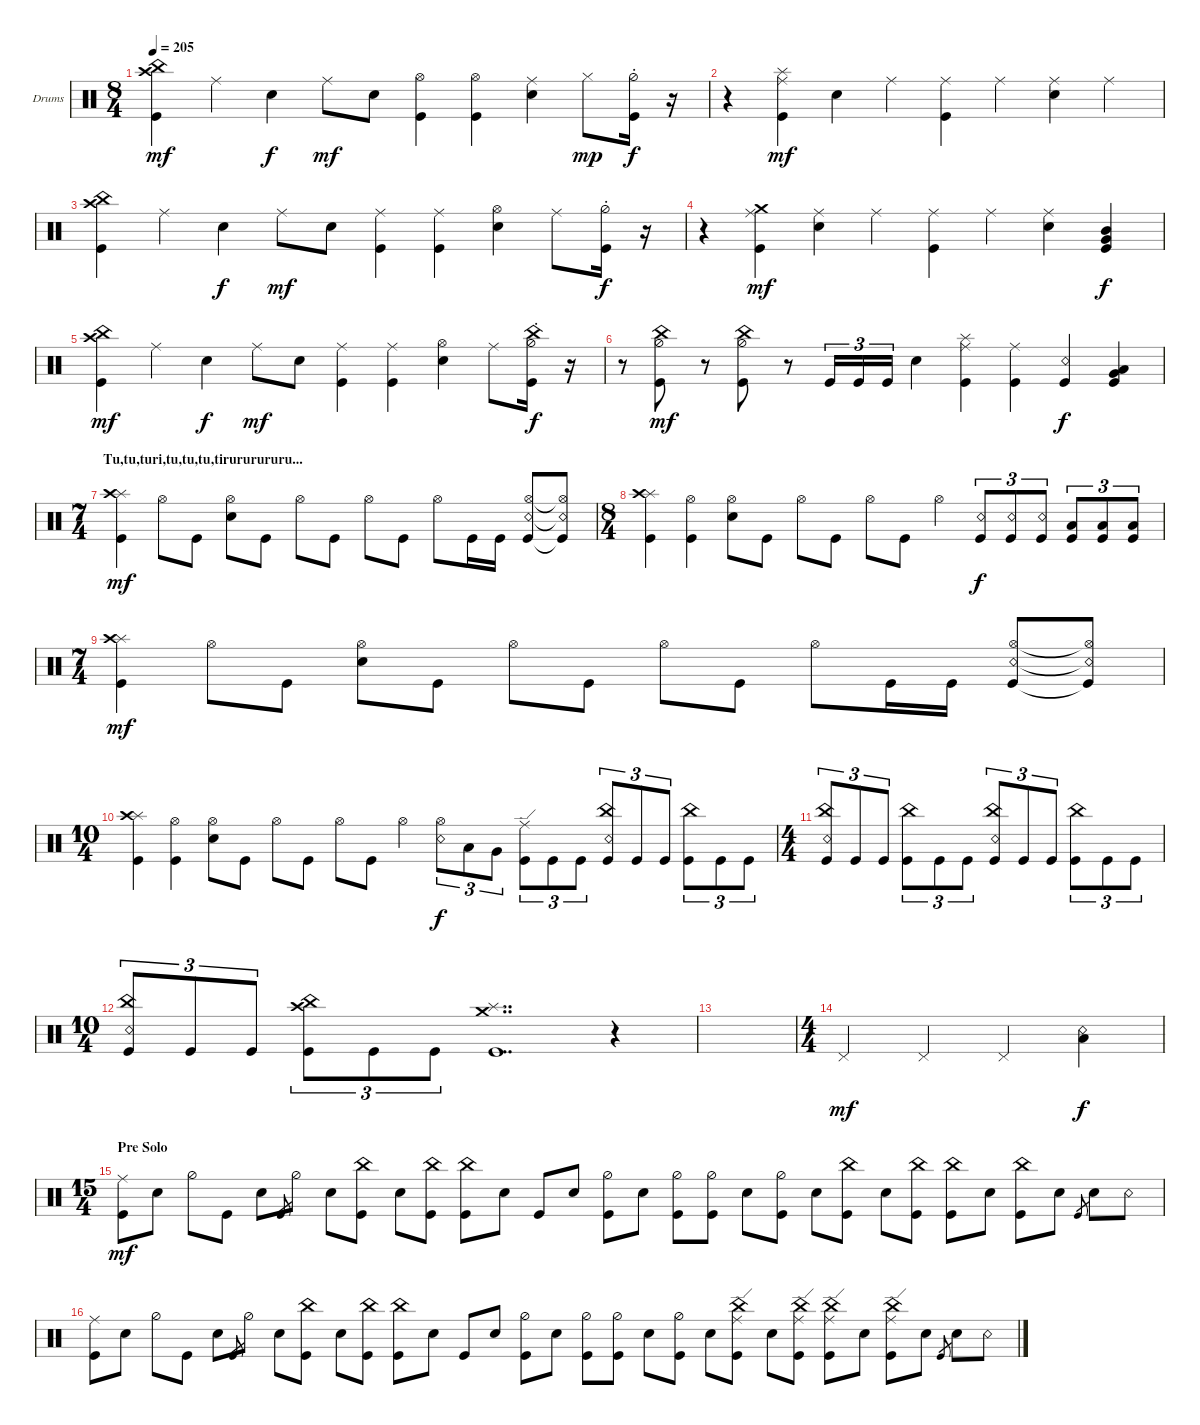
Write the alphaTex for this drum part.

\defaultSystemsLayout 4
\bracketExtendMode groupsimilarinstruments
\firstSystemTrackNameOrientation horizontal
\otherSystemsTrackNameOrientation horizontal
\track ("GordiBuena" "Drums") {instrument percussion}
\staff {score}
\articulation defaults
\ts (8 4)
\tempo 205
\clef neutral
\ks c
("Kick (hit)" "Crash high (hit)" "China (hit)").4{dy mf} "Ride (middle)".4 "Snare (hit) 2".4{dy f} "Ride (middle)".8{dy mf} "Snare (hit) 2".8 ("Kick (hit)" "Hi-Hat (open)").4 ("Kick (hit)" "Hi-Hat (open)").4 ("Snare (hit) 2" "Ride (middle)").4 "Hi-Hat (closed)".8{dy mp} ("Hi-Hat (half)"{st} "Kick (hit)"{st}).16{dy f} r.16 |
r.4 ("Kick (hit)" "Ride (middle)" "Splash (hit)").4{dy mf} "Snare (hit) 2".4 "Ride (middle)".4 ("Kick (hit)" "Ride (middle)").4 "Ride (middle)".4 ("Snare (hit) 2" "Ride (middle)").4 "Ride (middle)".4 |
("Kick (hit)" "Crash high (hit)" "China (hit)").4 "Ride (middle)".4 "Snare (hit) 2".4{dy f} "Ride (middle)".8{dy mf} "Snare (hit) 2".8 ("Kick (hit)" "Ride (middle)").4 ("Kick (hit)" "Ride (middle)").4 ("Snare (hit) 2" "Hi-Hat (open)").4 "Ride (middle)".8 ("Hi-Hat (half)"{st} "Kick (hit)"{st}).16{dy f} r.16 |
r.4 ("Kick (hit)" "Ride (middle)" "Crash medium (hit)").4{dy mf} ("Snare (hit) 2" "Ride (middle)").4 "Ride (middle)".4 ("Kick (hit)" "Ride (middle)").4 "Ride (middle)".4 ("Snare (hit) 2" "Ride (middle)").4 ("Mid Tom (hit)" "Kick (hit)" "Very Low Tom (hit)").4{dy f} |
("Kick (hit)" "Crash high (hit)" "China (hit)").4{dy mf} "Ride (middle)".4 "Snare (hit) 2".4{dy f} "Ride (middle)".8{dy mf} "Snare (hit) 2".8 ("Kick (hit)" "Ride (middle)").4 ("Kick (hit)" "Ride (middle)").4 ("Snare (hit) 2" "Hi-Hat (open)").4 "Ride (middle)".8 ("Hi-Hat (half)"{st} "Kick (hit)"{st} "China (hit)").16{dy f} r.16 |
r.8 ("Kick (hit)" "China (hit)" "Hi-Hat (half)").8{dy mf} r.8 ("Kick (hit)" "China (hit)" "Hi-Hat (half)").8 r.8 "Kick (hit)".16{tu (3 2)} "Kick (hit)".16{tu (3 2)} "Kick (hit)".16{tu (3 2)} "Snare (hit) 2".4 ("Kick (hit)" "Ride (middle)" "Splash (hit)").4 ("Kick (hit)" "Ride (middle)").4 ("Snare (rim shot)" "Kick (hit)").4{dy f} ("Very Low Tom (hit)" "Low Tom (hit)" "Kick (hit)").4 |
\ts (7 4)
\section ("" "Tu,tu,turi,tu,tu,tu,tirururururu...")
("Kick (hit)" "Splash (hit)" "Crash high (hit)").4{dy mf} "Hi-Hat (open)".8 "Kick (hit)".8 ("Hi-Hat (open)" "Snare (hit) 2").8 "Kick (hit)".8 "Hi-Hat (open)".8 "Kick (hit)".8 "Hi-Hat (open)".8 "Kick (hit)".8 "Hi-Hat (open)".8 "Kick (hit)".16 "Kick (hit)".16 ("Kick (hit)" "Snare (rim shot)" "Hi-Hat (open)").8 ("Kick (hit)"{t} "Snare (rim shot)"{t} "Hi-Hat (open)"{t}).8 |
\ts (8 4)
("Kick (hit)" "Splash (hit)" "Crash high (hit)").4 ("Hi-Hat (open)" "Kick (hit)").4 ("Hi-Hat (open)" "Snare (hit) 2").8 "Kick (hit)".8 "Hi-Hat (open)".8 "Kick (hit)".8 "Hi-Hat (open)".8 "Kick (hit)".8 "Hi-Hat (open)".4 ("Snare (rim shot)" "Kick (hit)").8{tu (3 2) dy f} ("Snare (rim shot)" "Kick (hit)").8{tu (3 2)} ("Snare (rim shot)" "Kick (hit)").8{tu (3 2)} ("Low Tom (hit)" "Kick (hit)").8{tu (3 2)} ("Low Tom (hit)" "Kick (hit)").8{tu (3 2)} ("Low Tom (hit)" "Kick (hit)").8{tu (3 2)} |
\ts (7 4)
("Kick (hit)" "Splash (hit)" "Crash high (hit)").4{dy mf} "Hi-Hat (open)".8 "Kick (hit)".8 ("Hi-Hat (open)" "Snare (hit) 2").8 "Kick (hit)".8 "Hi-Hat (open)".8 "Kick (hit)".8 "Hi-Hat (open)".8 "Kick (hit)".8 "Hi-Hat (open)".8 "Kick (hit)".16 "Kick (hit)".16 ("Kick (hit)" "Snare (rim shot)" "Hi-Hat (open)").8 ("Kick (hit)"{t} "Snare (rim shot)"{t} "Hi-Hat (open)"{t}).8 |
\ts (10 4)
("Kick (hit)" "Splash (hit)" "Crash high (hit)").4 ("Hi-Hat (open)" "Kick (hit)").4 ("Hi-Hat (open)" "Snare (hit) 2").8 "Kick (hit)".8 "Hi-Hat (open)".8 "Kick (hit)".8 "Hi-Hat (open)".8 "Kick (hit)".8 "Hi-Hat (open)".4 ("Snare (rim shot)" "Hi-Hat (open)").8{tu (3 2) dy f} "Low Tom (hit)".8{tu (3 2)} "Very Low Tom (hit)".8{tu (3 2)} ("Kick (hit)" "Ride (edge)").8{tu (3 2)} "Kick (hit)".8{tu (3 2)} "Kick (hit)".8{tu (3 2)} ("Kick (hit)" "Snare (rim shot)" "China (hit)").8{tu (3 2)} "Kick (hit)".8{tu (3 2)} "Kick (hit)".8{tu (3 2)} ("Kick (hit)" "China (hit)").8{tu (3 2)} "Kick (hit)".8{tu (3 2)} "Kick (hit)".8{tu (3 2)} |
\ts (4 4)
("Kick (hit)" "China (hit)" "Snare (rim shot)").8{tu (3 2)} "Kick (hit)".8{tu (3 2)} "Kick (hit)".8{tu (3 2)} ("Kick (hit)" "China (hit)").8{tu (3 2)} "Kick (hit)".8{tu (3 2)} "Kick (hit)".8{tu (3 2)} ("Kick (hit)" "China (hit)" "Snare (rim shot)").8{tu (3 2)} "Kick (hit)".8{tu (3 2)} "Kick (hit)".8{tu (3 2)} ("Kick (hit)" "China (hit)").8{tu (3 2)} "Kick (hit)".8{tu (3 2)} "Kick (hit)".8{tu (3 2)} |
\ts (10 4)
("Kick (hit)" "China (hit)" "Snare (rim shot)").8{tu (3 2)} "Kick (hit)".8{tu (3 2)} "Kick (hit)".8{tu (3 2)} ("Kick (hit)" "China (hit)" "Crash high (hit)").8{tu (3 2)} "Kick (hit)".8{tu (3 2)} "Kick (hit)".8{tu (3 2)} ("Kick (hit)" "Splash (hit)" "Crash medium (hit)").1{dd} r.4 |
|
\ts (4 4)
"Pedal Hi-Hat (hit)".4{dy mf} "Pedal Hi-Hat (hit)".4 "Pedal Hi-Hat (hit)".4 ("Snare (rim shot)" "Low Tom (hit)").4{dy f} |
\ts (15 4)
\section ("" "Pre Solo")
("Kick (hit)" "Ride (middle)").8{dy mf} "Snare (hit) 2".8 "Hi-Hat (half)".8 "Kick (hit)".8 "Snare (hit) 2".8 "Kick (hit)".8{gr} "Hi-Hat (half)".8 "Snare (hit) 2".8 ("Kick (hit)" "China (hit)").8 "Snare (hit) 2".8 ("Kick (hit)" "China (hit)").8 ("Kick (hit)" "China (hit)").8 "Snare (hit) 2".8 "Kick (hit)".8 "Snare (hit) 2".8 ("Kick (hit)" "Hi-Hat (half)").8 "Snare (hit) 2".8 ("Kick (hit)" "Hi-Hat (half)").8 ("Kick (hit)" "Hi-Hat (half)").8 "Snare (hit) 2".8 ("Kick (hit)" "Hi-Hat (half)").8 "Snare (hit) 2".8 ("Kick (hit)" "China (hit)").8 "Snare (hit) 2".8 ("Kick (hit)" "China (hit)").8 ("Kick (hit)" "China (hit)").8 "Snare (hit) 2".8 ("Kick (hit)" "China (hit)").8 "Snare (hit) 2".8 "Kick (hit)".8{gr} "Snare (hit) 2".8 "Snare (rim shot)".8 |
("Kick (hit)" "Ride (middle)").8 "Snare (hit) 2".8 "Hi-Hat (half)".8 "Kick (hit)".8 "Snare (hit) 2".8 "Kick (hit)".8{gr} "Hi-Hat (half)".8 "Snare (hit) 2".8 ("Kick (hit)" "China (hit)").8 "Snare (hit) 2".8 ("Kick (hit)" "China (hit)").8 ("Kick (hit)" "China (hit)").8 "Snare (hit) 2".8 "Kick (hit)".8 "Snare (hit) 2".8 ("Kick (hit)" "Hi-Hat (half)").8 "Snare (hit) 2".8 ("Kick (hit)" "Hi-Hat (half)").8 ("Kick (hit)" "Hi-Hat (half)").8 "Snare (hit) 2".8 ("Kick (hit)" "Hi-Hat (half)").8 "Snare (hit) 2".8 ("Kick (hit)" "China (hit)" "Ride (edge)").8 "Snare (hit) 2".8 ("Kick (hit)" "China (hit)" "Ride (edge)").8 ("Kick (hit)" "China (hit)" "Ride (edge)").8 "Snare (hit) 2".8 ("Kick (hit)" "China (hit)" "Ride (edge)").8 "Snare (hit) 2".8 "Kick (hit)".8{gr} "Snare (hit) 2".8 "Snare (rim shot)".8
